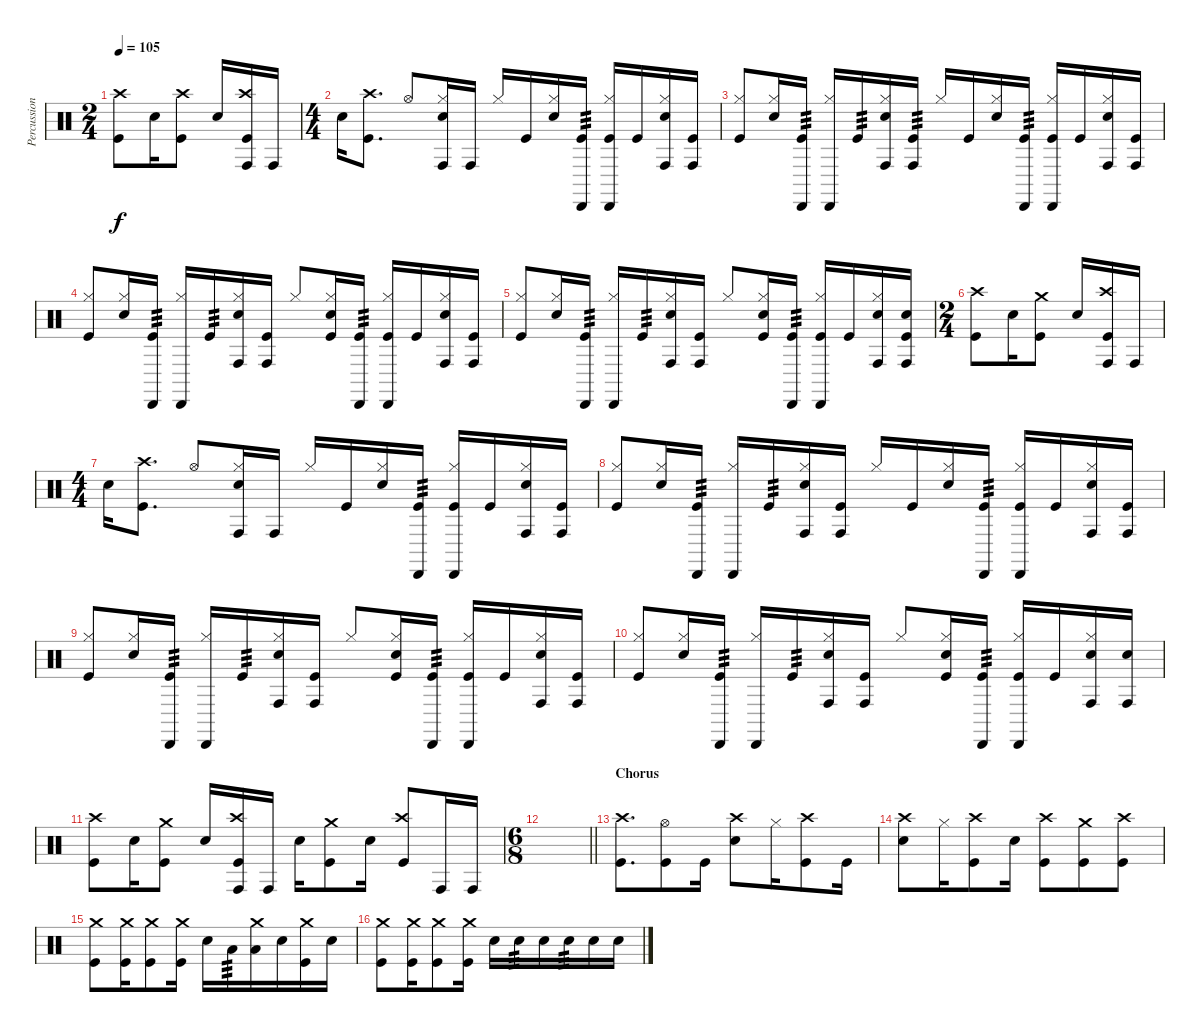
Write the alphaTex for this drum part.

\track ("Percussion" "Percussion") {instrument percussion}
\staff {score}
\articulation defaults
\ts (2 4)
\tempo 105
\clef neutral
\ks c
("Crash high (hit)" "Kick (hit)").8{dy f} "Snare (hit) 2".16 ("Crash high (hit)" "Kick (hit)").8 "Snare (hit) 2".16 ("Crash high (hit)" "Conga high (hit)" "Kick (hit)").16 "Conga high (hit)".16 |
\ts (4 4)
"Snare (hit) 2".16 ("Crash high (hit)" "Kick (hit)").8{d} "Hi-Hat (open)".8 ("Hi-Hat (closed)" "Snare (hit) 2" "Conga high (hit)").16 "Conga high (hit)".16 "Hi-Hat (closed)".16 "Kick (hit)".16 ("Hi-Hat (closed)" "Snare (hit) 2").16 ("Cabasa (hit)" "Kick (hit)").16{tp 3} ("Hi-Hat (closed)" "Cabasa (hit)" "Kick (hit)").16 "Kick (hit)".16 ("Hi-Hat (closed)" "Snare (hit) 2" "Conga high (hit)").16 ("Conga high (hit)" "Kick (hit)").16 |
("Hi-Hat (closed)" "Kick (hit)").8 ("Hi-Hat (closed)" "Snare (hit) 2").16 ("Cabasa (hit)" "Kick (hit)").16{tp 3} ("Hi-Hat (closed)" "Cabasa (hit)").16 "Kick (hit)".16{tp 3} ("Hi-Hat (closed)" "Snare (hit) 2" "Conga high (hit)").16 ("Conga high (hit)" "Kick (hit)").16{tp 3} "Hi-Hat (closed)".16 "Kick (hit)".16 ("Hi-Hat (closed)" "Snare (hit) 2").16 ("Cabasa (hit)" "Kick (hit)").16{tp 3} ("Hi-Hat (closed)" "Cabasa (hit)" "Kick (hit)").16 "Kick (hit)".16 ("Hi-Hat (closed)" "Snare (hit) 2" "Conga high (hit)").16 ("Conga high (hit)" "Kick (hit)").16 |
("Hi-Hat (closed)" "Kick (hit)").8 ("Hi-Hat (closed)" "Snare (hit) 2").16 ("Cabasa (hit)" "Kick (hit)").16{tp 3} ("Hi-Hat (closed)" "Cabasa (hit)").16 "Kick (hit)".16{tp 3} ("Hi-Hat (closed)" "Snare (hit) 2" "Conga high (hit)").16 ("Conga high (hit)" "Kick (hit)").16 "Hi-Hat (closed)".8 ("Hi-Hat (closed)" "Snare (hit) 2" "Kick (hit)").16 ("Cabasa (hit)" "Kick (hit)").16{tp 3} ("Hi-Hat (closed)" "Cabasa (hit)" "Kick (hit)").16 "Kick (hit)".16 ("Hi-Hat (closed)" "Snare (hit) 2" "Conga high (hit)").16 ("Conga high (hit)" "Kick (hit)").16 |
("Hi-Hat (closed)" "Kick (hit)").8 ("Hi-Hat (closed)" "Snare (hit) 2").16 ("Cabasa (hit)" "Kick (hit)").16{tp 3} ("Hi-Hat (closed)" "Cabasa (hit)").16 "Kick (hit)".16{tp 3} ("Hi-Hat (closed)" "Snare (hit) 2" "Conga high (hit)").16 ("Conga high (hit)" "Kick (hit)").16 "Hi-Hat (closed)".8 ("Hi-Hat (closed)" "Snare (hit) 2" "Kick (hit)").16 ("Cabasa (hit)" "Kick (hit)").16{tp 3} ("Hi-Hat (closed)" "Cabasa (hit)" "Kick (hit)").16 "Kick (hit)".16 ("Hi-Hat (closed)" "Snare (hit) 2" "Conga high (hit)").16 ("Snare (hit) 2" "Conga high (hit)" "Kick (hit)").16 |
\ts (2 4)
("Crash high (hit)" "Kick (hit)").8 "Snare (hit) 2".16 ("Crash medium (hit)" "Kick (hit)").8 "Snare (hit) 2".16 ("Crash high (hit)" "Conga high (hit)" "Kick (hit)").16 "Conga high (hit)".16 |
\ts (4 4)
"Snare (hit) 2".16 ("Crash high (hit)" "Kick (hit)").8{d} "Hi-Hat (open)".8 ("Hi-Hat (closed)" "Snare (hit) 2" "Conga high (hit)").16 "Conga high (hit)".16 "Hi-Hat (closed)".16 "Kick (hit)".16 ("Hi-Hat (closed)" "Snare (hit) 2").16 ("Cabasa (hit)" "Kick (hit)").16{tp 3} ("Hi-Hat (closed)" "Cabasa (hit)" "Kick (hit)").16 "Kick (hit)".16 ("Hi-Hat (closed)" "Snare (hit) 2" "Conga high (hit)").16 ("Conga high (hit)" "Kick (hit)").16 |
("Hi-Hat (closed)" "Kick (hit)").8 ("Hi-Hat (closed)" "Snare (hit) 2").16 ("Cabasa (hit)" "Kick (hit)").16{tp 3} ("Hi-Hat (closed)" "Cabasa (hit)").16 "Kick (hit)".16{tp 3} ("Hi-Hat (closed)" "Snare (hit) 2" "Conga high (hit)").16 ("Conga high (hit)" "Kick (hit)").16 "Hi-Hat (closed)".16 "Kick (hit)".16 ("Hi-Hat (closed)" "Snare (hit) 2").16 ("Cabasa (hit)" "Kick (hit)").16{tp 3} ("Hi-Hat (closed)" "Cabasa (hit)" "Kick (hit)").16 "Kick (hit)".16 ("Hi-Hat (closed)" "Snare (hit) 2" "Conga high (hit)").16 ("Conga high (hit)" "Kick (hit)").16 |
("Hi-Hat (closed)" "Kick (hit)").8 ("Hi-Hat (closed)" "Snare (hit) 2").16 ("Cabasa (hit)" "Kick (hit)").16{tp 3} ("Hi-Hat (closed)" "Cabasa (hit)").16 "Kick (hit)".16{tp 3} ("Hi-Hat (closed)" "Snare (hit) 2" "Conga high (hit)").16 ("Conga high (hit)" "Kick (hit)").16 "Hi-Hat (closed)".8 ("Hi-Hat (closed)" "Snare (hit) 2" "Kick (hit)").16 ("Cabasa (hit)" "Kick (hit)").16{tp 3} ("Hi-Hat (closed)" "Cabasa (hit)" "Kick (hit)").16 "Kick (hit)".16 ("Hi-Hat (closed)" "Snare (hit) 2" "Conga high (hit)").16 ("Conga high (hit)" "Kick (hit)").16 |
("Hi-Hat (closed)" "Kick (hit)").8 ("Hi-Hat (closed)" "Snare (hit) 2").16 ("Cabasa (hit)" "Kick (hit)").16{tp 3} ("Hi-Hat (closed)" "Cabasa (hit)").16 "Kick (hit)".16{tp 3} ("Hi-Hat (closed)" "Snare (hit) 2" "Conga high (hit)").16 ("Conga high (hit)" "Kick (hit)").16 "Hi-Hat (closed)".8 ("Hi-Hat (closed)" "Snare (hit) 2" "Kick (hit)").16 ("Cabasa (hit)" "Kick (hit)").16{tp 3} ("Hi-Hat (closed)" "Cabasa (hit)" "Kick (hit)").16 "Kick (hit)".16 ("Hi-Hat (closed)" "Snare (hit) 2" "Conga high (hit)").16 ("Snare (hit) 2" "Conga high (hit)").16 |
("Crash high (hit)" "Kick (hit)").8 "Snare (hit) 2".16 ("Crash medium (hit)" "Kick (hit)").8 "Snare (hit) 2".16 ("Crash high (hit)" "Conga high (hit)" "Kick (hit)").16 "Conga high (hit)".16 "Snare (hit) 2".16 ("Crash medium (hit)" "Kick (hit)").8 "Snare (hit) 2".16 ("Crash high (hit)" "Kick (hit)").8 "Conga high (hit)".16 "Conga high (hit)".16 |
\ts (6 8)
\barLineRight lightlight
|
\section ("" "Chorus")
("Crash high (hit)" "Kick (hit)").8{d} ("Hi-Hat (open)" "Kick (hit)").8 "Kick (hit)".16 ("Crash high (hit)" "Snare (hit) 2").8 "Hi-Hat (closed)".16 ("Crash high (hit)" "Kick (hit)").8 "Kick (hit)".16 |
("Crash high (hit)" "Snare (hit) 2").8 "Hi-Hat (closed)".16 ("Crash high (hit)" "Kick (hit)").8 "Snare (hit) 2".16 ("Crash high (hit)" "Kick (hit)").8 ("Crash medium (hit)" "Kick (hit)").8 ("Crash high (hit)" "Kick (hit)").8 |
("Crash medium (hit)" "Kick (hit)").8 ("Crash medium (hit)" "Kick (hit)").16 ("Crash medium (hit)" "Kick (hit)").8 ("Crash medium (hit)" "Kick (hit)").16 "Snare (hit) 2".16 "Low Floor Tom (hit)".16{tp 3} ("Crash medium (hit)" "Low Floor Tom (hit)").16 "Snare (hit) 2".16 ("Crash medium (hit)" "Kick (hit)").16 "Snare (hit) 2".16 |
("Crash medium (hit)" "Kick (hit)").8 ("Crash medium (hit)" "Kick (hit)").16 ("Crash medium (hit)" "Kick (hit)").8 ("Crash medium (hit)" "Kick (hit)").16 "Snare (hit) 2".16 "Snare (hit) 2".16{tp 3} "Snare (hit) 2".16 "Snare (hit) 2".16{tp 3} "Snare (hit) 2".16 "Snare (hit) 2".16
